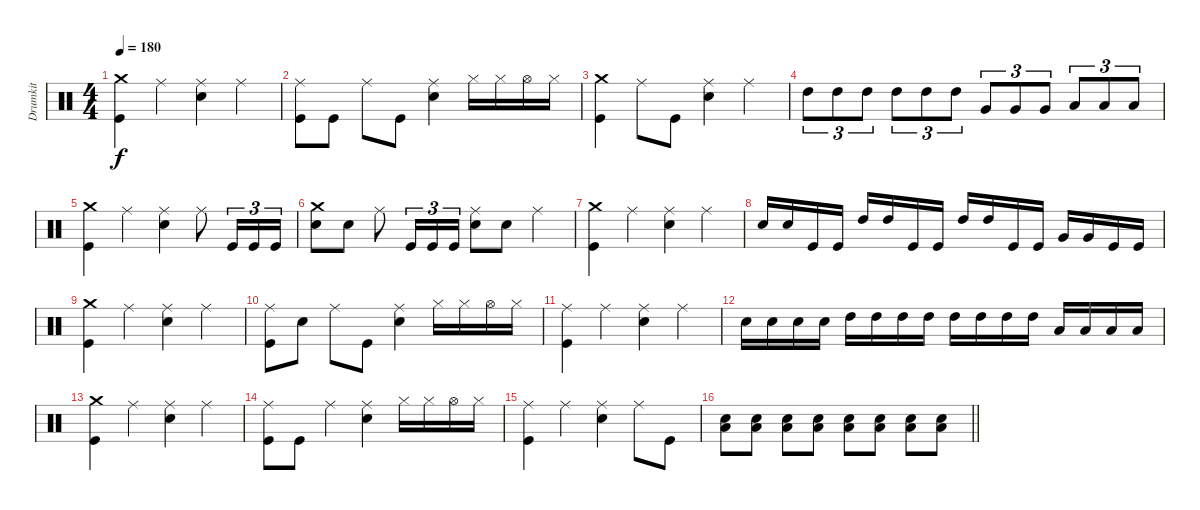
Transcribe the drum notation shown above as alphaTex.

\track ("Drumkit" "Drumkit") {instrument percussion}
\staff {score}
\articulation defaults
\ts (4 4)
\tempo 180
\clef neutral
\ks c
("Crash medium (hit)" "Kick (hit)").4{dy f} "Ride (middle)".4 ("Ride (middle)" "Snare (hit) 2").4 "Ride (middle)".4 |
("Ride (middle)" "Kick (hit)").8 "Kick (hit)".8 "Ride (middle)".8 "Kick (hit)".8 ("Ride (middle)" "Snare (hit) 2").4 "Hi-Hat (closed)".16 "Hi-Hat (closed)".16 "Hi-Hat (open)".16 "Hi-Hat (closed)".16 |
("Crash medium (hit)" "Kick (hit)").4 "Ride (middle)".8 "Kick (hit)".8 ("Ride (middle)" "Snare (hit) 2").4 "Ride (middle)".4 |
"High Tom (hit)".8{tu (3 2)} "High Tom (hit)".8{tu (3 2)} "High Tom (hit)".8{tu (3 2)} "High Tom (hit)".8{tu (3 2)} "High Tom (hit)".8{tu (3 2)} "High Tom (hit)".8{tu (3 2)} "Very Low Tom (hit)".8{tu (3 2)} "Very Low Tom (hit)".8{tu (3 2)} "Very Low Tom (hit)".8{tu (3 2)} "Low Tom (hit)".8{tu (3 2)} "Low Tom (hit)".8{tu (3 2)} "Low Tom (hit)".8{tu (3 2)} |
("Crash medium (hit)" "Kick (hit)").4 "Ride (middle)".4 ("Ride (middle)" "Snare (hit) 2").4 "Ride (middle)".8 "Kick (hit)".16{tu (3 2)} "Kick (hit)".16{tu (3 2)} "Kick (hit)".16{tu (3 2)} |
("Crash medium (hit)" "Snare (hit) 2").8 "Snare (hit) 2".8 "Ride (middle)".8 "Kick (hit)".16{tu (3 2)} "Kick (hit)".16{tu (3 2)} "Kick (hit)".16{tu (3 2)} ("Ride (middle)" "Snare (hit) 2").8 "Snare (hit) 2".8 "Ride (middle)".4 |
("Crash medium (hit)" "Kick (hit)").4 "Ride (middle)".4 ("Ride (middle)" "Snare (hit) 2").4 "Ride (middle)".4 |
"Snare (hit) 2".16 "Snare (hit) 2".16 "Kick (hit)".16 "Kick (hit)".16 "High Tom (hit)".16 "High Tom (hit)".16 "Kick (hit)".16 "Kick (hit)".16 "High Tom (hit)".16 "High Tom (hit)".16 "Kick (hit)".16 "Kick (hit)".16 "Very Low Tom (hit)".16 "Very Low Tom (hit)".16 "Kick (hit)".16 "Kick (hit)".16 |
("Crash medium (hit)" "Kick (hit)").4 "Ride (middle)".4 ("Ride (middle)" "Snare (hit) 2").4 "Ride (middle)".4 |
("Ride (middle)" "Kick (hit)").8 "Snare (hit) 2".8 "Ride (middle)".8 "Kick (hit)".8 ("Ride (middle)" "Snare (hit) 2").4 "Hi-Hat (closed)".16 "Hi-Hat (closed)".16 "Hi-Hat (open)".16 "Hi-Hat (closed)".16 |
("Ride (middle)" "Kick (hit)").4 "Ride (middle)".4 ("Ride (middle)" "Snare (hit) 2").4 "Ride (middle)".4 |
"Snare (hit) 2".16 "Snare (hit) 2".16 "Snare (hit) 2".16 "Snare (hit) 2".16 "High Tom (hit)".16 "High Tom (hit)".16 "High Tom (hit)".16 "High Tom (hit)".16 "High Tom (hit)".16 "High Tom (hit)".16 "High Tom (hit)".16 "High Tom (hit)".16 "Low Tom (hit)".16 "Low Tom (hit)".16 "Low Tom (hit)".16 "Low Tom (hit)".16 |
("Crash medium (hit)" "Kick (hit)").4 "Ride (middle)".4 ("Ride (middle)" "Snare (hit) 2").4 "Ride (middle)".4 |
("Ride (middle)" "Kick (hit)").8 "Kick (hit)".8 "Ride (middle)".4 ("Ride (middle)" "Snare (hit) 2").4 "Hi-Hat (closed)".16 "Hi-Hat (closed)".16 "Hi-Hat (open)".16 "Hi-Hat (closed)".16 |
("Ride (middle)" "Kick (hit)").4 "Ride (middle)".4 ("Ride (middle)" "Snare (hit) 2").4 "Ride (middle)".8 "Kick (hit)".8 |
\barLineRight lightlight
("Snare (hit) 2" "Low Floor Tom (hit)").8 ("Snare (hit) 2" "Low Floor Tom (hit)").8 ("Snare (hit) 2" "Low Floor Tom (hit)").8 ("Snare (hit) 2" "Low Floor Tom (hit)").8 ("Snare (hit) 2" "Low Floor Tom (hit)").8 ("Snare (hit) 2" "Low Floor Tom (hit)").8 ("Snare (hit) 2" "Low Floor Tom (hit)").8 ("Snare (hit) 2" "Low Floor Tom (hit)").8
